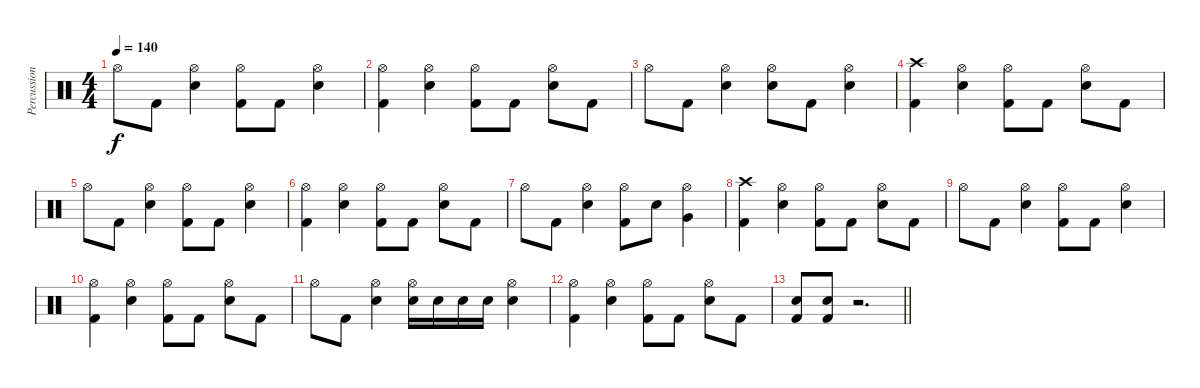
\track ("Percussion" "Percussion") {instrument percussion}
\staff {score}
\articulation defaults
\ts (4 4)
\tempo 140
\clef neutral
\ks c "Hi-Hat (open)".8{dy f} "Kick (hit) 2".8
("Hi-Hat (open)" "Snare (hit) 2").4 ("Hi-Hat (open)" "Kick (hit) 2").8 "Kick (hit) 2".8 ("Hi-Hat (open)" "Snare (hit) 2").4 |
("Hi-Hat (open)" "Kick (hit) 2").4 ("Hi-Hat (open)" "Snare (hit) 2").4 ("Hi-Hat (open)" "Kick (hit) 2").8 "Kick (hit) 2".8 ("Hi-Hat (open)" "Snare (hit) 2").8 "Kick (hit) 2".8 |
"Hi-Hat (open)".8 "Kick (hit) 2".8 ("Hi-Hat (open)" "Snare (hit) 2").4 ("Hi-Hat (open)" "Snare (hit) 2").8 "Kick (hit) 2".8 ("Hi-Hat (open)" "Snare (hit) 2").4 |
("Crash high (hit)" "Kick (hit) 2").4 ("Hi-Hat (open)" "Snare (hit) 2").4 ("Hi-Hat (open)" "Kick (hit) 2").8 "Kick (hit) 2".8 ("Hi-Hat (open)" "Snare (hit) 2").8 "Kick (hit) 2".8 |
"Hi-Hat (open)".8 "Kick (hit) 2".8 ("Hi-Hat (open)" "Snare (hit) 2").4 ("Hi-Hat (open)" "Kick (hit) 2").8 "Kick (hit) 2".8 ("Hi-Hat (open)" "Snare (hit) 2").4 |
("Hi-Hat (open)" "Kick (hit) 2").4 ("Hi-Hat (open)" "Snare (hit) 2").4 ("Hi-Hat (open)" "Kick (hit) 2").8 "Kick (hit) 2".8 ("Hi-Hat (open)" "Snare (hit) 2").8 "Kick (hit) 2".8 |
"Hi-Hat (open)".8 "Kick (hit) 2".8 ("Hi-Hat (open)" "Snare (hit) 2").4 ("Hi-Hat (open)" "Kick (hit) 2").8 "Snare (hit) 2".8 ("Hi-Hat (open)" "Very Low Tom (hit)").4 |
("Crash high (hit)" "Kick (hit) 2").4 ("Hi-Hat (open)" "Snare (hit) 2").4 ("Hi-Hat (open)" "Kick (hit) 2").8 "Kick (hit) 2".8 ("Hi-Hat (open)" "Snare (hit) 2").8 "Kick (hit) 2".8 |
"Hi-Hat (open)".8 "Kick (hit) 2".8 ("Hi-Hat (open)" "Snare (hit) 2").4 ("Hi-Hat (open)" "Kick (hit) 2").8 "Kick (hit) 2".8 ("Hi-Hat (open)" "Snare (hit) 2").4 |
("Hi-Hat (open)" "Kick (hit) 2").4 ("Hi-Hat (open)" "Snare (hit) 2").4 ("Hi-Hat (open)" "Kick (hit) 2").8 "Kick (hit) 2".8 ("Hi-Hat (open)" "Snare (hit) 2").8 "Kick (hit) 2".8 |
"Hi-Hat (open)".8 "Kick (hit) 2".8 ("Hi-Hat (open)" "Snare (hit) 2").4 ("Hi-Hat (open)" "Snare (hit) 2").16 "Snare (hit) 2".16 "Snare (hit) 2".16 "Snare (hit) 2".16 ("Hi-Hat (open)" "Snare (hit) 2").4 |
("Hi-Hat (open)" "Kick (hit) 2").4 ("Hi-Hat (open)" "Snare (hit) 2").4 ("Hi-Hat (open)" "Kick (hit) 2").8 "Kick (hit) 2".8 ("Hi-Hat (open)" "Snare (hit) 2").8 "Kick (hit) 2".8 |
\barLineRight lightlight
("Snare (hit) 2" "Kick (hit) 2").8 ("Snare (hit) 2" "Kick (hit) 2").8 r.2{d}
